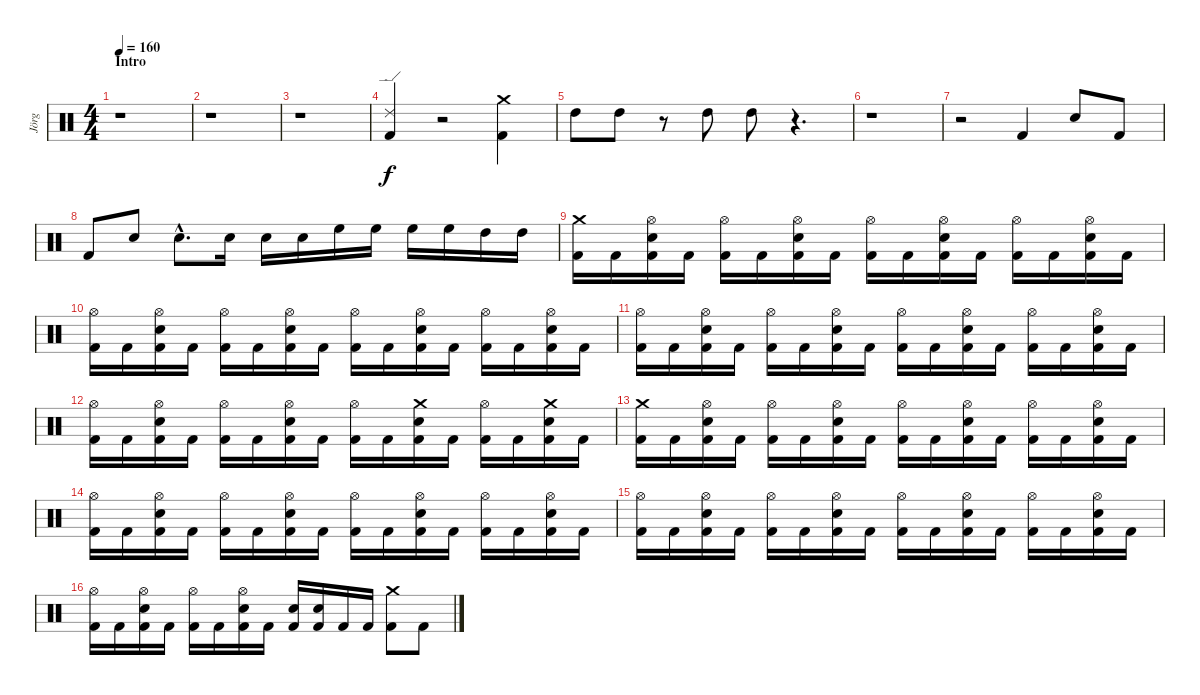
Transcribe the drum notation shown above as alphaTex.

\track ("Jörg" "Jörg") {instrument percussion}
\staff {score}
\articulation defaults
\ts (4 4)
\section ("" "Intro")
\tempo 160
\clef neutral
\ks c
r.1{dy f} |
r.1 |
r.1 |
("Ride (edge) 2" "Kick (hit) 2").4 r.2 ("Kick (hit) 2" "Crash medium (hit)").4 |
"High Tom (hit)".8 "High Tom (hit)".8 r.8 "High Tom (hit)".8 "High Tom (hit)".8 r.4{d} |
r.1 |
r.2 "Kick (hit) 2".4 "Snare (hit) 2".8 "Kick (hit) 2".8 |
"Kick (hit) 2".8 "Snare (hit) 2".8 "Snare (hit) 2"{hac}.8{d} "Snare (hit) 2".16 "Snare (hit) 2".16 "Snare (hit) 2".16 "High Floor Tom (hit)".16 "High Floor Tom (hit)".16 "High Floor Tom (hit)".16 "High Floor Tom (hit)".16 "High Tom (hit)".16 "High Tom (hit)".16 |
("Kick (hit) 2" "Crash medium (hit)").16 "Kick (hit) 2".16 ("Kick (hit) 2" "Snare (hit) 2" "Hi-Hat (open)").16 "Kick (hit) 2".16 ("Kick (hit) 2" "Hi-Hat (open)").16 "Kick (hit) 2".16 ("Kick (hit) 2" "Snare (hit) 2" "Hi-Hat (open)").16 "Kick (hit) 2".16 ("Kick (hit) 2" "Hi-Hat (open)").16 "Kick (hit) 2".16 ("Kick (hit) 2" "Snare (hit) 2" "Hi-Hat (open)").16 "Kick (hit) 2".16 ("Kick (hit) 2" "Hi-Hat (open)").16 "Kick (hit) 2".16 ("Kick (hit) 2" "Snare (hit) 2" "Hi-Hat (open)").16 "Kick (hit) 2".16 |
("Hi-Hat (open)" "Kick (hit) 2").16 "Kick (hit) 2".16 ("Kick (hit) 2" "Snare (hit) 2" "Hi-Hat (open)").16 "Kick (hit) 2".16 ("Kick (hit) 2" "Hi-Hat (open)").16 "Kick (hit) 2".16 ("Kick (hit) 2" "Snare (hit) 2" "Hi-Hat (open)").16 "Kick (hit) 2".16 ("Kick (hit) 2" "Hi-Hat (open)").16 "Kick (hit) 2".16 ("Kick (hit) 2" "Snare (hit) 2" "Hi-Hat (open)").16 "Kick (hit) 2".16 ("Kick (hit) 2" "Hi-Hat (open)").16 "Kick (hit) 2".16 ("Kick (hit) 2" "Snare (hit) 2" "Hi-Hat (open)").16 "Kick (hit) 2".16 |
("Hi-Hat (open)" "Kick (hit) 2").16 "Kick (hit) 2".16 ("Kick (hit) 2" "Snare (hit) 2" "Hi-Hat (open)").16 "Kick (hit) 2".16 ("Kick (hit) 2" "Hi-Hat (open)").16 "Kick (hit) 2".16 ("Kick (hit) 2" "Snare (hit) 2" "Hi-Hat (open)").16 "Kick (hit) 2".16 ("Kick (hit) 2" "Hi-Hat (open)").16 "Kick (hit) 2".16 ("Kick (hit) 2" "Snare (hit) 2" "Hi-Hat (open)").16 "Kick (hit) 2".16 ("Kick (hit) 2" "Hi-Hat (open)").16 "Kick (hit) 2".16 ("Kick (hit) 2" "Snare (hit) 2" "Hi-Hat (open)").16 "Kick (hit) 2".16 |
("Hi-Hat (open)" "Kick (hit) 2").16 "Kick (hit) 2".16 ("Kick (hit) 2" "Snare (hit) 2" "Hi-Hat (open)").16 "Kick (hit) 2".16 ("Kick (hit) 2" "Hi-Hat (open)").16 "Kick (hit) 2".16 ("Kick (hit) 2" "Snare (hit) 2" "Hi-Hat (open)").16 "Kick (hit) 2".16 ("Kick (hit) 2" "Hi-Hat (open)").16 "Kick (hit) 2".16 ("Crash medium (hit)" "Kick (hit) 2" "Snare (hit) 2").16 "Kick (hit) 2".16 ("Kick (hit) 2" "Hi-Hat (open)").16 "Kick (hit) 2".16 ("Crash medium (hit)" "Kick (hit) 2" "Snare (hit) 2").16 "Kick (hit) 2".16 |
("Crash medium (hit)" "Kick (hit) 2").16 "Kick (hit) 2".16 ("Kick (hit) 2" "Snare (hit) 2" "Hi-Hat (open)").16 "Kick (hit) 2".16 ("Kick (hit) 2" "Hi-Hat (open)").16 "Kick (hit) 2".16 ("Kick (hit) 2" "Snare (hit) 2" "Hi-Hat (open)").16 "Kick (hit) 2".16 ("Kick (hit) 2" "Hi-Hat (open)").16 "Kick (hit) 2".16 ("Kick (hit) 2" "Snare (hit) 2" "Hi-Hat (open)").16 "Kick (hit) 2".16 ("Kick (hit) 2" "Hi-Hat (open)").16 "Kick (hit) 2".16 ("Kick (hit) 2" "Snare (hit) 2" "Hi-Hat (open)").16 "Kick (hit) 2".16 |
("Hi-Hat (open)" "Kick (hit) 2").16 "Kick (hit) 2".16 ("Kick (hit) 2" "Snare (hit) 2" "Hi-Hat (open)").16 "Kick (hit) 2".16 ("Kick (hit) 2" "Hi-Hat (open)").16 "Kick (hit) 2".16 ("Kick (hit) 2" "Snare (hit) 2" "Hi-Hat (open)").16 "Kick (hit) 2".16 ("Kick (hit) 2" "Hi-Hat (open)").16 "Kick (hit) 2".16 ("Kick (hit) 2" "Snare (hit) 2" "Hi-Hat (open)").16 "Kick (hit) 2".16 ("Kick (hit) 2" "Hi-Hat (open)").16 "Kick (hit) 2".16 ("Kick (hit) 2" "Snare (hit) 2" "Hi-Hat (open)").16 "Kick (hit) 2".16 |
("Hi-Hat (open)" "Kick (hit) 2").16 "Kick (hit) 2".16 ("Kick (hit) 2" "Snare (hit) 2" "Hi-Hat (open)").16 "Kick (hit) 2".16 ("Kick (hit) 2" "Hi-Hat (open)").16 "Kick (hit) 2".16 ("Kick (hit) 2" "Snare (hit) 2" "Hi-Hat (open)").16 "Kick (hit) 2".16 ("Kick (hit) 2" "Hi-Hat (open)").16 "Kick (hit) 2".16 ("Kick (hit) 2" "Snare (hit) 2" "Hi-Hat (open)").16 "Kick (hit) 2".16 ("Kick (hit) 2" "Hi-Hat (open)").16 "Kick (hit) 2".16 ("Kick (hit) 2" "Snare (hit) 2" "Hi-Hat (open)").16 "Kick (hit) 2".16 |
("Hi-Hat (open)" "Kick (hit) 2").16 "Kick (hit) 2".16 ("Kick (hit) 2" "Snare (hit) 2" "Hi-Hat (open)").16 "Kick (hit) 2".16 ("Kick (hit) 2" "Hi-Hat (open)").16 "Kick (hit) 2".16 ("Kick (hit) 2" "Snare (hit) 2" "Hi-Hat (open)").16 "Kick (hit) 2".16 ("Snare (hit) 2" "Kick (hit) 2").16 ("Snare (hit) 2" "Kick (hit) 2").16 "Kick (hit) 2".16 "Kick (hit) 2".16 ("Crash medium (hit)" "Kick (hit) 2").8 "Kick (hit) 2".8
